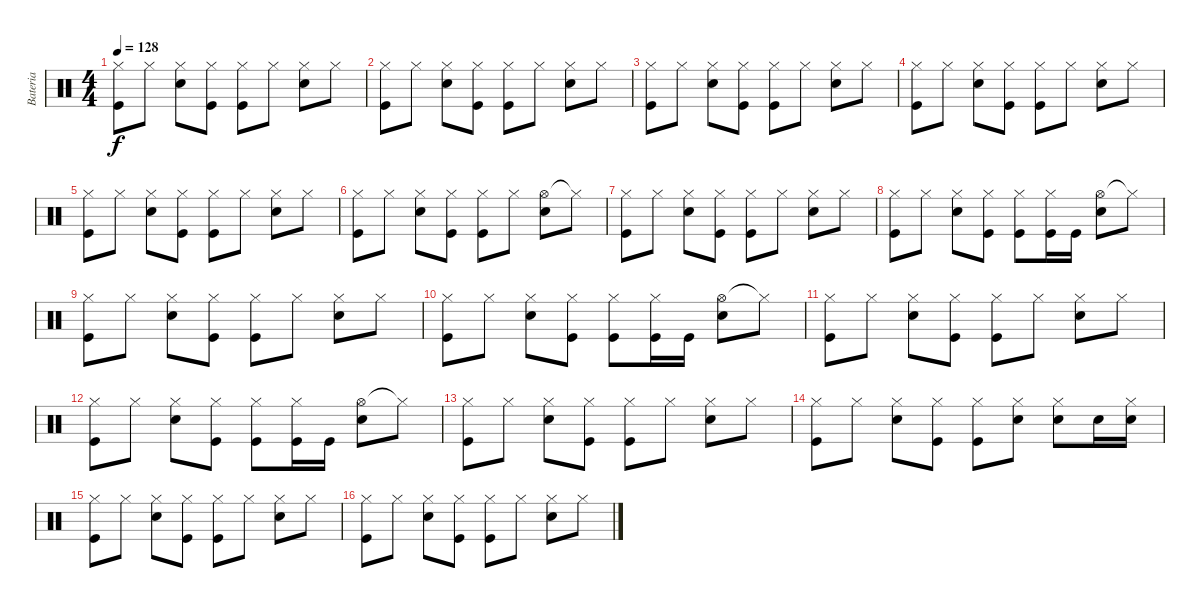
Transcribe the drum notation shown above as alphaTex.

\track ("Bateria" "Bateria") {instrument percussion}
\staff {score}
\articulation defaults
\ts (4 4)
\tempo 128
\clef neutral
\ks c
("Hi-Hat (closed)" "Kick (hit)").8{dy f} "Hi-Hat (closed)".8 ("Hi-Hat (closed)" "Snare (hit) 2").8 ("Hi-Hat (closed)" "Kick (hit)").8 ("Hi-Hat (closed)" "Kick (hit)").8 "Hi-Hat (closed)".8 ("Hi-Hat (closed)" "Snare (hit) 2").8 "Hi-Hat (closed)".8 |
("Hi-Hat (closed)" "Kick (hit)").8 "Hi-Hat (closed)".8 ("Hi-Hat (closed)" "Snare (hit) 2").8 ("Hi-Hat (closed)" "Kick (hit)").8 ("Hi-Hat (closed)" "Kick (hit)").8 "Hi-Hat (closed)".8 ("Hi-Hat (closed)" "Snare (hit) 2").8 "Hi-Hat (closed)".8 |
("Hi-Hat (closed)" "Kick (hit)").8 "Hi-Hat (closed)".8 ("Hi-Hat (closed)" "Snare (hit) 2").8 ("Hi-Hat (closed)" "Kick (hit)").8 ("Hi-Hat (closed)" "Kick (hit)").8 "Hi-Hat (closed)".8 ("Hi-Hat (closed)" "Snare (hit) 2").8 "Hi-Hat (closed)".8 |
("Hi-Hat (closed)" "Kick (hit)").8 "Hi-Hat (closed)".8 ("Hi-Hat (closed)" "Snare (hit) 2").8 ("Hi-Hat (closed)" "Kick (hit)").8 ("Hi-Hat (closed)" "Kick (hit)").8 "Hi-Hat (closed)".8 ("Hi-Hat (closed)" "Snare (hit) 2").8 "Hi-Hat (closed)".8 |
("Hi-Hat (closed)" "Kick (hit)").8 "Hi-Hat (closed)".8 ("Hi-Hat (closed)" "Snare (hit) 2").8 ("Hi-Hat (closed)" "Kick (hit)").8 ("Hi-Hat (closed)" "Kick (hit)").8 "Hi-Hat (closed)".8 ("Hi-Hat (closed)" "Snare (hit) 2").8 "Hi-Hat (closed)".8 |
("Hi-Hat (closed)" "Kick (hit)").8 "Hi-Hat (closed)".8 ("Hi-Hat (closed)" "Snare (hit) 2").8 ("Hi-Hat (closed)" "Kick (hit)").8 ("Hi-Hat (closed)" "Kick (hit)").8 "Hi-Hat (closed)".8 ("Hi-Hat (open)" "Snare (hit) 2").8 "Hi-Hat (closed)"{t}.8 |
("Hi-Hat (closed)" "Kick (hit)").8 "Hi-Hat (closed)".8 ("Hi-Hat (closed)" "Snare (hit) 2").8 ("Hi-Hat (closed)" "Kick (hit)").8 ("Hi-Hat (closed)" "Kick (hit)").8 "Hi-Hat (closed)".8 ("Hi-Hat (closed)" "Snare (hit) 2").8 "Hi-Hat (closed)".8 |
("Hi-Hat (closed)" "Kick (hit)").8 "Hi-Hat (closed)".8 ("Hi-Hat (closed)" "Snare (hit) 2").8 ("Hi-Hat (closed)" "Kick (hit)").8 ("Hi-Hat (closed)" "Kick (hit)").8 ("Hi-Hat (closed)" "Kick (hit)").16 "Kick (hit)".16 ("Hi-Hat (open)" "Snare (hit) 2").8 "Hi-Hat (closed)"{t}.8 |
("Hi-Hat (closed)" "Kick (hit)").8 "Hi-Hat (closed)".8 ("Hi-Hat (closed)" "Snare (hit) 2").8 ("Hi-Hat (closed)" "Kick (hit)").8 ("Hi-Hat (closed)" "Kick (hit)").8 "Hi-Hat (closed)".8 ("Hi-Hat (closed)" "Snare (hit) 2").8 "Hi-Hat (closed)".8 |
("Hi-Hat (closed)" "Kick (hit)").8 "Hi-Hat (closed)".8 ("Hi-Hat (closed)" "Snare (hit) 2").8 ("Hi-Hat (closed)" "Kick (hit)").8 ("Hi-Hat (closed)" "Kick (hit)").8 ("Hi-Hat (closed)" "Kick (hit)").16 "Kick (hit)".16 ("Hi-Hat (open)" "Snare (hit) 2").8 "Hi-Hat (closed)"{t}.8 |
("Hi-Hat (closed)" "Kick (hit)").8 "Hi-Hat (closed)".8 ("Hi-Hat (closed)" "Snare (hit) 2").8 ("Hi-Hat (closed)" "Kick (hit)").8 ("Hi-Hat (closed)" "Kick (hit)").8 "Hi-Hat (closed)".8 ("Hi-Hat (closed)" "Snare (hit) 2").8 "Hi-Hat (closed)".8 |
("Hi-Hat (closed)" "Kick (hit)").8 "Hi-Hat (closed)".8 ("Hi-Hat (closed)" "Snare (hit) 2").8 ("Hi-Hat (closed)" "Kick (hit)").8 ("Hi-Hat (closed)" "Kick (hit)").8 ("Hi-Hat (closed)" "Kick (hit)").16 "Kick (hit)".16 ("Hi-Hat (open)" "Snare (hit) 2").8 "Hi-Hat (closed)"{t}.8 |
("Hi-Hat (closed)" "Kick (hit)").8 "Hi-Hat (closed)".8 ("Hi-Hat (closed)" "Snare (hit) 2").8 ("Hi-Hat (closed)" "Kick (hit)").8 ("Hi-Hat (closed)" "Kick (hit)").8 "Hi-Hat (closed)".8 ("Hi-Hat (closed)" "Snare (hit) 2").8 "Hi-Hat (closed)".8 |
("Hi-Hat (closed)" "Kick (hit)").8 "Hi-Hat (closed)".8 ("Hi-Hat (closed)" "Snare (hit) 2").8 ("Hi-Hat (closed)" "Kick (hit)").8 ("Hi-Hat (closed)" "Kick (hit)").8 ("Hi-Hat (closed)" "Snare (hit) 2").8 ("Hi-Hat (closed)" "Snare (hit) 2").8 "Snare (hit) 2".16 ("Hi-Hat (closed)" "Snare (hit) 2").16 |
("Hi-Hat (closed)" "Kick (hit)").8 "Hi-Hat (closed)".8 ("Hi-Hat (closed)" "Snare (hit) 2").8 ("Hi-Hat (closed)" "Kick (hit)").8 ("Hi-Hat (closed)" "Kick (hit)").8 "Hi-Hat (closed)".8 ("Hi-Hat (closed)" "Snare (hit) 2").8 "Hi-Hat (closed)".8 |
("Hi-Hat (closed)" "Kick (hit)").8 "Hi-Hat (closed)".8 ("Hi-Hat (closed)" "Snare (hit) 2").8 ("Hi-Hat (closed)" "Kick (hit)").8 ("Hi-Hat (closed)" "Kick (hit)").8 "Hi-Hat (closed)".8 ("Hi-Hat (closed)" "Snare (hit) 2").8 "Hi-Hat (closed)".8
